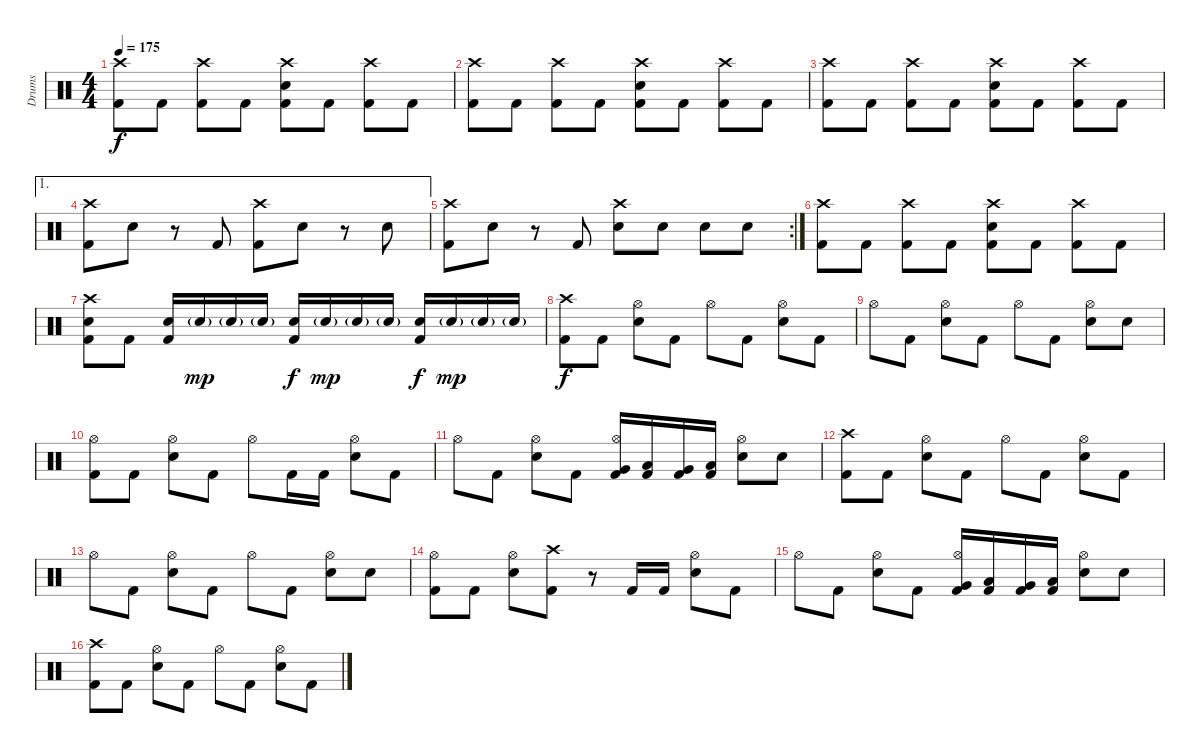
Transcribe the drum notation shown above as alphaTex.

\track ("Drums" "Drums") {instrument percussion}
\staff {score}
\articulation defaults
\ts (4 4)
\tempo 175
\clef neutral
\ks c
("Crash high (hit)" "Kick (hit) 2").8{dy f} "Kick (hit) 2".8 ("Crash high (hit)" "Kick (hit) 2").8 "Kick (hit) 2".8 ("Crash high (hit)" "Electric Snare (hit)" "Kick (hit) 2").8 "Kick (hit) 2".8 ("Crash high (hit)" "Kick (hit) 2").8 "Kick (hit) 2".8 |
("Crash high (hit)" "Kick (hit) 2").8 "Kick (hit) 2".8 ("Crash high (hit)" "Kick (hit) 2").8 "Kick (hit) 2".8 ("Crash high (hit)" "Electric Snare (hit)" "Kick (hit) 2").8 "Kick (hit) 2".8 ("Crash high (hit)" "Kick (hit) 2").8 "Kick (hit) 2".8 |
("Crash high (hit)" "Kick (hit) 2").8 "Kick (hit) 2".8 ("Crash high (hit)" "Kick (hit) 2").8 "Kick (hit) 2".8 ("Crash high (hit)" "Electric Snare (hit)" "Kick (hit) 2").8 "Kick (hit) 2".8 ("Crash high (hit)" "Kick (hit) 2").8 "Kick (hit) 2".8 |
\ae 1
("Crash high (hit)" "Kick (hit) 2").8 "Electric Snare (hit)".8 r.8 "Kick (hit) 2".8 ("Crash high (hit)" "Kick (hit) 2").8 "Electric Snare (hit)".8 r.8 "Electric Snare (hit)".8 |
\rc 2
("Crash high (hit)" "Kick (hit) 2").8 "Electric Snare (hit)".8 r.8 "Kick (hit) 2".8 ("Crash high (hit)" "Electric Snare (hit)").8 "Electric Snare (hit)".8 "Electric Snare (hit)".8 "Electric Snare (hit)".8 |
("Crash high (hit)" "Kick (hit) 2").8 "Kick (hit) 2".8 ("Crash high (hit)" "Kick (hit) 2").8 "Kick (hit) 2".8 ("Crash high (hit)" "Electric Snare (hit)" "Kick (hit) 2").8 "Kick (hit) 2".8 ("Crash high (hit)" "Kick (hit) 2").8 "Kick (hit) 2".8 |
("Crash high (hit)" "Electric Snare (hit)" "Kick (hit) 2").8 "Kick (hit) 2".8 ("Electric Snare (hit)" "Kick (hit) 2").16 "Electric Snare (hit)"{g}.16{dy mp} "Electric Snare (hit)"{g}.16 "Electric Snare (hit)"{g}.16 ("Electric Snare (hit)" "Kick (hit) 2").16{dy f} "Electric Snare (hit)"{g}.16{dy mp} "Electric Snare (hit)"{g}.16 "Electric Snare (hit)"{g}.16 ("Electric Snare (hit)" "Kick (hit) 2").16{dy f} "Electric Snare (hit)"{g}.16{dy mp} "Electric Snare (hit)"{g}.16 "Electric Snare (hit)"{g}.16 |
("Crash high (hit)" "Kick (hit) 2").8{dy f} "Kick (hit) 2".8 ("Hi-Hat (open)" "Electric Snare (hit)").8 "Kick (hit) 2".8 "Hi-Hat (open)".8 "Kick (hit) 2".8 ("Hi-Hat (open)" "Electric Snare (hit)").8 "Kick (hit) 2".8 |
"Hi-Hat (open)".8 "Kick (hit) 2".8 ("Hi-Hat (open)" "Electric Snare (hit)").8 "Kick (hit) 2".8 "Hi-Hat (open)".8 "Kick (hit) 2".8 ("Hi-Hat (open)" "Electric Snare (hit)").8 "Electric Snare (hit)".8 |
("Hi-Hat (open)" "Kick (hit) 2").8 "Kick (hit) 2".8 ("Hi-Hat (open)" "Electric Snare (hit)").8 "Kick (hit) 2".8 "Hi-Hat (open)".8 "Kick (hit) 2".16 "Kick (hit) 2".16 ("Hi-Hat (open)" "Electric Snare (hit)").8 "Kick (hit) 2".8 |
"Hi-Hat (open)".8 "Kick (hit) 2".8 ("Hi-Hat (open)" "Electric Snare (hit)").8 "Kick (hit) 2".8 ("Hi-Hat (open)" "Very Low Tom (hit)" "Kick (hit) 2").16 ("Low Tom (hit)" "Kick (hit) 2").16 ("Very Low Tom (hit)" "Kick (hit) 2").16 ("Low Floor Tom (hit)" "Kick (hit) 2").16 ("Hi-Hat (open)" "Electric Snare (hit)").8 "Electric Snare (hit)".8 |
("Crash high (hit)" "Kick (hit) 2").8 "Kick (hit) 2".8 ("Hi-Hat (open)" "Electric Snare (hit)").8 "Kick (hit) 2".8 "Hi-Hat (open)".8 "Kick (hit) 2".8 ("Hi-Hat (open)" "Electric Snare (hit)").8 "Kick (hit) 2".8 |
"Hi-Hat (open)".8 "Kick (hit) 2".8 ("Hi-Hat (open)" "Electric Snare (hit)").8 "Kick (hit) 2".8 "Hi-Hat (open)".8 "Kick (hit) 2".8 ("Hi-Hat (open)" "Electric Snare (hit)").8 "Electric Snare (hit)".8 |
("Hi-Hat (open)" "Kick (hit) 2").8 "Kick (hit) 2".8 ("Hi-Hat (open)" "Electric Snare (hit)").8 ("Crash high (hit)" "Kick (hit) 2").8 r.8 "Kick (hit) 2".16 "Kick (hit) 2".16 ("Hi-Hat (open)" "Electric Snare (hit)").8 "Kick (hit) 2".8 |
"Hi-Hat (open)".8 "Kick (hit) 2".8 ("Hi-Hat (open)" "Electric Snare (hit)").8 "Kick (hit) 2".8 ("Hi-Hat (open)" "Very Low Tom (hit)" "Kick (hit) 2").16 ("Low Tom (hit)" "Kick (hit) 2").16 ("Very Low Tom (hit)" "Kick (hit) 2").16 ("Low Floor Tom (hit)" "Kick (hit) 2").16 ("Hi-Hat (open)" "Electric Snare (hit)").8 "Electric Snare (hit)".8 |
("Crash high (hit)" "Kick (hit) 2").8 "Kick (hit) 2".8 ("Hi-Hat (open)" "Electric Snare (hit)").8 "Kick (hit) 2".8 "Hi-Hat (open)".8 "Kick (hit) 2".8 ("Hi-Hat (open)" "Electric Snare (hit)").8 "Kick (hit) 2".8
